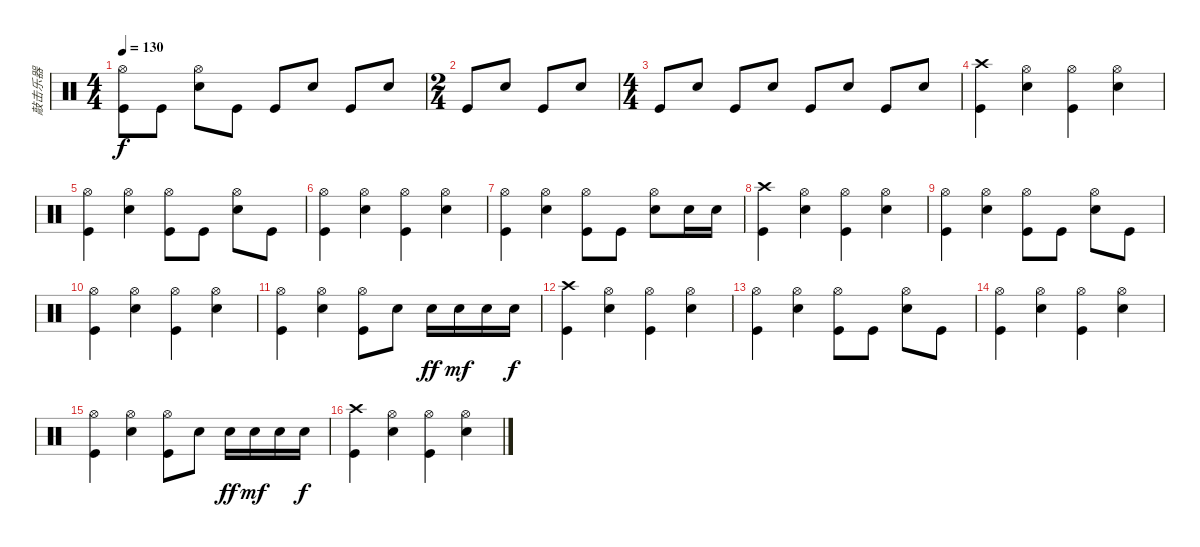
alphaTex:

\track ("敲击乐器" "敲击乐器") {instrument percussion}
\staff {score}
\articulation defaults
\ts (4 4)
\tempo 130
\clef neutral
\ks c
("Hi-Hat (open)" "Kick (hit)").8{dy f} "Kick (hit)".8 ("Hi-Hat (open)" "Snare (hit) 2").8 "Kick (hit)".8 "Kick (hit)".8 "Snare (hit) 2".8 "Kick (hit)".8 "Snare (hit) 2".8 |
\ts (2 4)
"Kick (hit)".8 "Snare (hit) 2".8 "Kick (hit)".8 "Snare (hit) 2".8 |
\ts (4 4)
"Kick (hit)".8 "Snare (hit) 2".8 "Kick (hit)".8 "Snare (hit) 2".8 "Kick (hit)".8 "Snare (hit) 2".8 "Kick (hit)".8 "Snare (hit) 2".8 |
("Crash high (hit)" "Kick (hit)").4 ("Hi-Hat (open)" "Snare (hit) 2").4 ("Hi-Hat (open)" "Kick (hit)").4 ("Hi-Hat (open)" "Snare (hit) 2").4 |
("Hi-Hat (open)" "Kick (hit)").4 ("Hi-Hat (open)" "Snare (hit) 2").4 ("Hi-Hat (open)" "Kick (hit)").8 "Kick (hit)".8 ("Hi-Hat (open)" "Snare (hit) 2").8 "Kick (hit)".8 |
("Hi-Hat (open)" "Kick (hit)").4 ("Hi-Hat (open)" "Snare (hit) 2").4 ("Hi-Hat (open)" "Kick (hit)").4 ("Hi-Hat (open)" "Snare (hit) 2").4 |
("Hi-Hat (open)" "Kick (hit)").4 ("Hi-Hat (open)" "Snare (hit) 2").4 ("Hi-Hat (open)" "Kick (hit)").8 "Kick (hit)".8 ("Hi-Hat (open)" "Snare (hit) 2").8 "Snare (hit) 2".16 "Snare (hit) 2".16 |
("Crash high (hit)" "Kick (hit)").4 ("Hi-Hat (open)" "Snare (hit) 2").4 ("Hi-Hat (open)" "Kick (hit)").4 ("Hi-Hat (open)" "Snare (hit) 2").4 |
("Hi-Hat (open)" "Kick (hit)").4 ("Hi-Hat (open)" "Snare (hit) 2").4 ("Hi-Hat (open)" "Kick (hit)").8 "Kick (hit)".8 ("Hi-Hat (open)" "Snare (hit) 2").8 "Kick (hit)".8 |
("Hi-Hat (open)" "Kick (hit)").4 ("Hi-Hat (open)" "Snare (hit) 2").4 ("Hi-Hat (open)" "Kick (hit)").4 ("Hi-Hat (open)" "Snare (hit) 2").4 |
("Hi-Hat (open)" "Kick (hit)").4 ("Hi-Hat (open)" "Snare (hit) 2").4 ("Hi-Hat (open)" "Kick (hit)").8 "Snare (hit) 2".8 "Snare (hit) 2".16{dy ff} "Snare (hit) 2".16{dy mf} "Snare (hit) 2".16 "Snare (hit) 2".16{dy f} |
("Crash high (hit)" "Kick (hit)").4 ("Hi-Hat (open)" "Snare (hit) 2").4 ("Hi-Hat (open)" "Kick (hit)").4 ("Hi-Hat (open)" "Snare (hit) 2").4 |
("Hi-Hat (open)" "Kick (hit)").4 ("Hi-Hat (open)" "Snare (hit) 2").4 ("Hi-Hat (open)" "Kick (hit)").8 "Kick (hit)".8 ("Hi-Hat (open)" "Snare (hit) 2").8 "Kick (hit)".8 |
("Hi-Hat (open)" "Kick (hit)").4 ("Hi-Hat (open)" "Snare (hit) 2").4 ("Hi-Hat (open)" "Kick (hit)").4 ("Hi-Hat (open)" "Snare (hit) 2").4 |
("Hi-Hat (open)" "Kick (hit)").4 ("Hi-Hat (open)" "Snare (hit) 2").4 ("Hi-Hat (open)" "Kick (hit)").8 "Snare (hit) 2".8 "Snare (hit) 2".16{dy ff} "Snare (hit) 2".16{dy mf} "Snare (hit) 2".16 "Snare (hit) 2".16{dy f} |
("Crash high (hit)" "Kick (hit)").4 ("Hi-Hat (open)" "Snare (hit) 2").4 ("Hi-Hat (open)" "Kick (hit)").4 ("Hi-Hat (open)" "Snare (hit) 2").4
